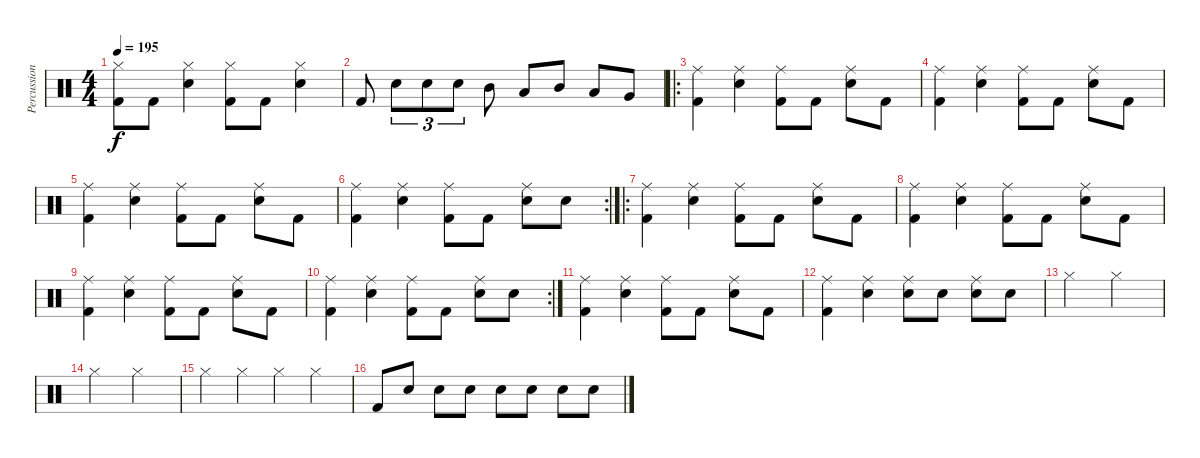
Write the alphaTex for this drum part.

\track ("Percussion" "Percussion") {instrument percussion}
\staff {score}
\articulation defaults
\ts (4 4)
\tempo 195
\clef neutral
\ks c
("Hi-Hat (closed)" "Kick (hit) 2").8{dy f} "Kick (hit) 2".8 ("Hi-Hat (closed)" "Snare (hit) 2").4 ("Hi-Hat (closed)" "Kick (hit) 2").8 "Kick (hit) 2".8 ("Hi-Hat (closed)" "Snare (hit) 2").4 |
"Kick (hit) 2".8 "Snare (hit) 2".8{tu (3 2)} "Snare (hit) 2".8{tu (3 2)} "Snare (hit) 2".8{tu (3 2)} "Mid Tom (hit)".8 "Low Tom (hit)".8 "Mid Tom (hit)".8 "Low Tom (hit)".8 "Very Low Tom (hit)".8 |
\ro
("Ride (middle)" "Kick (hit) 2").4 ("Ride (middle)" "Snare (hit) 2").4 ("Ride (middle)" "Kick (hit) 2").8 "Kick (hit) 2".8 ("Ride (middle)" "Snare (hit) 2").8 "Kick (hit) 2".8 |
("Ride (middle)" "Kick (hit) 2").4 ("Ride (middle)" "Snare (hit) 2").4 ("Ride (middle)" "Kick (hit) 2").8 "Kick (hit) 2".8 ("Ride (middle)" "Snare (hit) 2").8 "Kick (hit) 2".8 |
("Ride (middle)" "Kick (hit) 2").4 ("Ride (middle)" "Snare (hit) 2").4 ("Ride (middle)" "Kick (hit) 2").8 "Kick (hit) 2".8 ("Ride (middle)" "Snare (hit) 2").8 "Kick (hit) 2".8 |
\rc 2
("Ride (middle)" "Kick (hit) 2").4 ("Ride (middle)" "Snare (hit) 2").4 ("Ride (middle)" "Kick (hit) 2").8 "Kick (hit) 2".8 ("Ride (middle)" "Snare (hit) 2").8 "Snare (hit) 2".8 |
\ro
("Ride (middle)" "Kick (hit) 2").4 ("Ride (middle)" "Snare (hit) 2").4 ("Ride (middle)" "Kick (hit) 2").8 "Kick (hit) 2".8 ("Ride (middle)" "Snare (hit) 2").8 "Kick (hit) 2".8 |
("Ride (middle)" "Kick (hit) 2").4 ("Ride (middle)" "Snare (hit) 2").4 ("Ride (middle)" "Kick (hit) 2").8 "Kick (hit) 2".8 ("Ride (middle)" "Snare (hit) 2").8 "Kick (hit) 2".8 |
("Ride (middle)" "Kick (hit) 2").4 ("Ride (middle)" "Snare (hit) 2").4 ("Ride (middle)" "Kick (hit) 2").8 "Kick (hit) 2".8 ("Ride (middle)" "Snare (hit) 2").8 "Kick (hit) 2".8 |
\rc 2
("Ride (middle)" "Kick (hit) 2").4 ("Ride (middle)" "Snare (hit) 2").4 ("Ride (middle)" "Kick (hit) 2").8 "Kick (hit) 2".8 ("Ride (middle)" "Snare (hit) 2").8 "Snare (hit) 2".8 |
("Ride (middle)" "Kick (hit) 2").4 ("Ride (middle)" "Snare (hit) 2").4 ("Ride (middle)" "Kick (hit) 2").8 "Kick (hit) 2".8 ("Ride (middle)" "Snare (hit) 2").8 "Kick (hit) 2".8 |
("Ride (middle)" "Kick (hit) 2").4 ("Ride (middle)" "Snare (hit) 2").4 ("Ride (middle)" "Snare (hit) 2").8 "Snare (hit) 2".8 ("Ride (middle)" "Snare (hit) 2").8 "Snare (hit) 2".8 |
"Hi-Hat (closed)".2 "Hi-Hat (closed)".2 |
"Hi-Hat (closed)".2 "Hi-Hat (closed)".2 |
"Hi-Hat (closed)".4 "Hi-Hat (closed)".4 "Hi-Hat (closed)".4 "Hi-Hat (closed)".4 |
"Kick (hit) 2".8 "Snare (hit) 2".8 "Snare (hit) 2".8 "Snare (hit) 2".8 "Snare (hit) 2".8 "Snare (hit) 2".8 "Snare (hit) 2".8 "Snare (hit) 2".8
